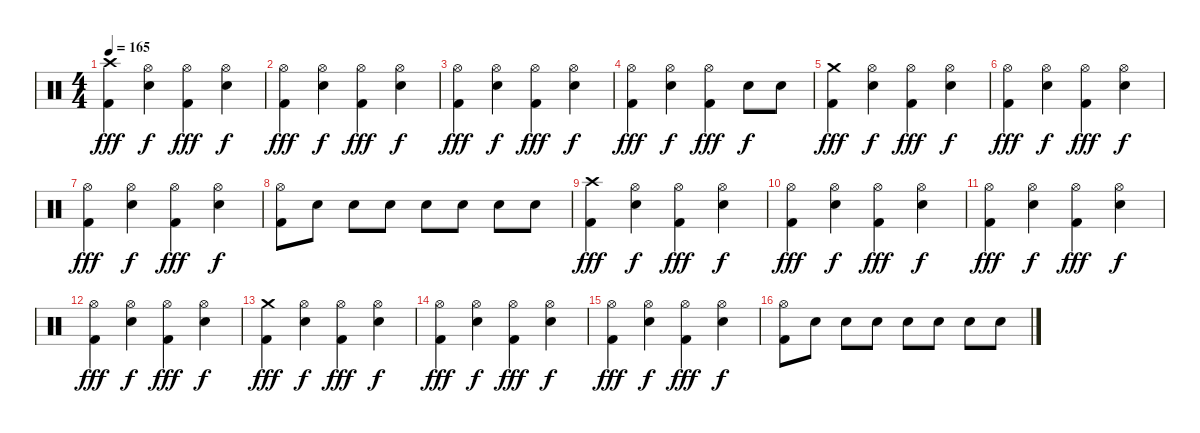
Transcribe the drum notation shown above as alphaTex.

\track "" {instrument percussion}
\staff {score}
\articulation defaults
\ts (4 4)
\tempo 165
\clef neutral
\ks c
("Kick (hit) 2" "Crash high (hit)").4{dy fff} ("Electric Snare (hit)" "Hi-Hat (open)").4{dy f} ("Kick (hit) 2" "Hi-Hat (open)").4{dy fff} ("Electric Snare (hit)" "Hi-Hat (open)").4{dy f} |
("Hi-Hat (open)" "Kick (hit) 2").4{dy fff} ("Hi-Hat (open)" "Electric Snare (hit)").4{dy f} ("Hi-Hat (open)" "Kick (hit) 2").4{dy fff} ("Hi-Hat (open)" "Electric Snare (hit)").4{dy f} |
("Hi-Hat (open)" "Kick (hit) 2").4{dy fff} ("Hi-Hat (open)" "Electric Snare (hit)").4{dy f} ("Hi-Hat (open)" "Kick (hit) 2").4{dy fff} ("Hi-Hat (open)" "Electric Snare (hit)").4{dy f} |
("Hi-Hat (open)" "Kick (hit) 2").4{dy fff} ("Hi-Hat (open)" "Electric Snare (hit)").4{dy f} ("Hi-Hat (open)" "Kick (hit) 2").4{dy fff} "Electric Snare (hit)".8{dy f} "Electric Snare (hit)".8 |
("Kick (hit) 2" "Crash medium (hit)").4{dy fff} ("Electric Snare (hit)" "Hi-Hat (open)").4{dy f} ("Kick (hit) 2" "Hi-Hat (open)").4{dy fff} ("Electric Snare (hit)" "Hi-Hat (open)").4{dy f} |
("Hi-Hat (open)" "Kick (hit) 2").4{dy fff} ("Hi-Hat (open)" "Electric Snare (hit)").4{dy f} ("Hi-Hat (open)" "Kick (hit) 2").4{dy fff} ("Hi-Hat (open)" "Electric Snare (hit)").4{dy f} |
("Hi-Hat (open)" "Kick (hit) 2").4{dy fff} ("Hi-Hat (open)" "Electric Snare (hit)").4{dy f} ("Hi-Hat (open)" "Kick (hit) 2").4{dy fff} ("Hi-Hat (open)" "Electric Snare (hit)").4{dy f} |
("Kick (hit) 2" "Hi-Hat (open)").8 "Electric Snare (hit)".8 "Electric Snare (hit)".8 "Electric Snare (hit)".8 "Electric Snare (hit)".8 "Electric Snare (hit)".8 "Electric Snare (hit)".8 "Electric Snare (hit)".8 |
("Kick (hit) 2" "Crash high (hit)").4{dy fff} ("Electric Snare (hit)" "Hi-Hat (open)").4{dy f} ("Kick (hit) 2" "Hi-Hat (open)").4{dy fff} ("Electric Snare (hit)" "Hi-Hat (open)").4{dy f} |
("Hi-Hat (open)" "Kick (hit) 2").4{dy fff} ("Hi-Hat (open)" "Electric Snare (hit)").4{dy f} ("Hi-Hat (open)" "Kick (hit) 2").4{dy fff} ("Hi-Hat (open)" "Electric Snare (hit)").4{dy f} |
("Hi-Hat (open)" "Kick (hit) 2").4{dy fff} ("Hi-Hat (open)" "Electric Snare (hit)").4{dy f} ("Hi-Hat (open)" "Kick (hit) 2").4{dy fff} ("Hi-Hat (open)" "Electric Snare (hit)").4{dy f} |
("Hi-Hat (open)" "Kick (hit) 2").4{dy fff} ("Hi-Hat (open)" "Electric Snare (hit)").4{dy f} ("Hi-Hat (open)" "Kick (hit) 2").4{dy fff} ("Hi-Hat (open)" "Electric Snare (hit)").4{dy f} |
("Kick (hit) 2" "Crash medium (hit)").4{dy fff} ("Electric Snare (hit)" "Hi-Hat (open)").4{dy f} ("Kick (hit) 2" "Hi-Hat (open)").4{dy fff} ("Electric Snare (hit)" "Hi-Hat (open)").4{dy f} |
("Hi-Hat (open)" "Kick (hit) 2").4{dy fff} ("Hi-Hat (open)" "Electric Snare (hit)").4{dy f} ("Hi-Hat (open)" "Kick (hit) 2").4{dy fff} ("Hi-Hat (open)" "Electric Snare (hit)").4{dy f} |
("Hi-Hat (open)" "Kick (hit) 2").4{dy fff} ("Hi-Hat (open)" "Electric Snare (hit)").4{dy f} ("Hi-Hat (open)" "Kick (hit) 2").4{dy fff} ("Hi-Hat (open)" "Electric Snare (hit)").4{dy f} |
("Kick (hit) 2" "Hi-Hat (open)").8 "Electric Snare (hit)".8 "Electric Snare (hit)".8 "Electric Snare (hit)".8 "Electric Snare (hit)".8 "Electric Snare (hit)".8 "Electric Snare (hit)".8 "Electric Snare (hit)".8
